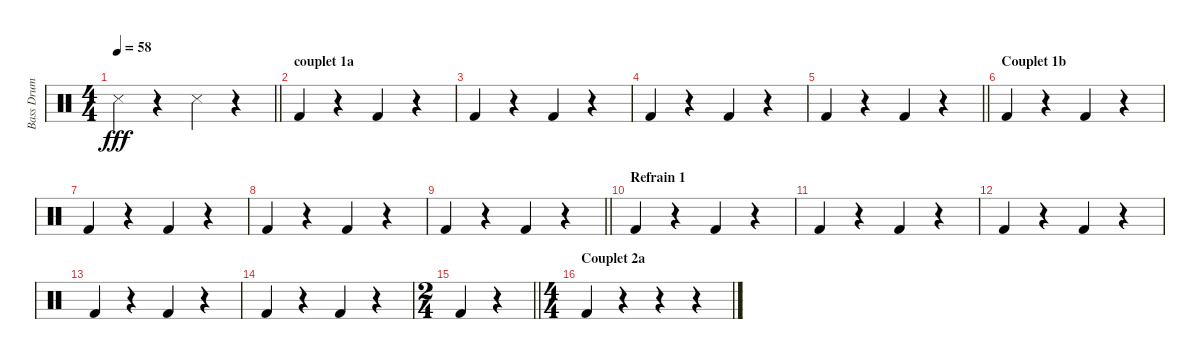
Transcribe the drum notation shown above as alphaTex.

\track ("Bass Drum" "Bass Drum") {instrument percussion}
\staff {score}
\articulation defaults
\ts (4 4)
\tempo 58
\clef neutral
\barLineRight lightlight
\ks c "Snare (side stick) 3".4{dy fff}
r.4 "Snare (side stick) 3".4 r.4 |
\section ("" "couplet 1a")
"Kick (hit) 2".4 r.4 "Kick (hit) 2".4 r.4 |
"Kick (hit) 2".4 r.4 "Kick (hit) 2".4 r.4 |
"Kick (hit) 2".4 r.4 "Kick (hit) 2".4 r.4 |
\barLineRight lightlight "Kick (hit) 2".4
r.4 "Kick (hit) 2".4 r.4 |
\section ("" "Couplet 1b")
"Kick (hit) 2".4 r.4 "Kick (hit) 2".4 r.4 |
"Kick (hit) 2".4 r.4 "Kick (hit) 2".4 r.4 |
"Kick (hit) 2".4 r.4 "Kick (hit) 2".4 r.4 |
\barLineRight lightlight "Kick (hit) 2".4
r.4 "Kick (hit) 2".4 r.4 |
\section ("" "Refrain 1")
"Kick (hit) 2".4 r.4 "Kick (hit) 2".4 r.4 |
"Kick (hit) 2".4 r.4 "Kick (hit) 2".4 r.4 |
"Kick (hit) 2".4 r.4 "Kick (hit) 2".4 r.4 |
"Kick (hit) 2".4 r.4 "Kick (hit) 2".4 r.4 |
"Kick (hit) 2".4 r.4 "Kick (hit) 2".4 r.4 |
\ts (2 4)
\barLineRight lightlight "Kick (hit) 2".4
r.4 |
\ts (4 4)
\section ("" "Couplet 2a")
"Kick (hit) 2".4 r.4 r.4 r.4
